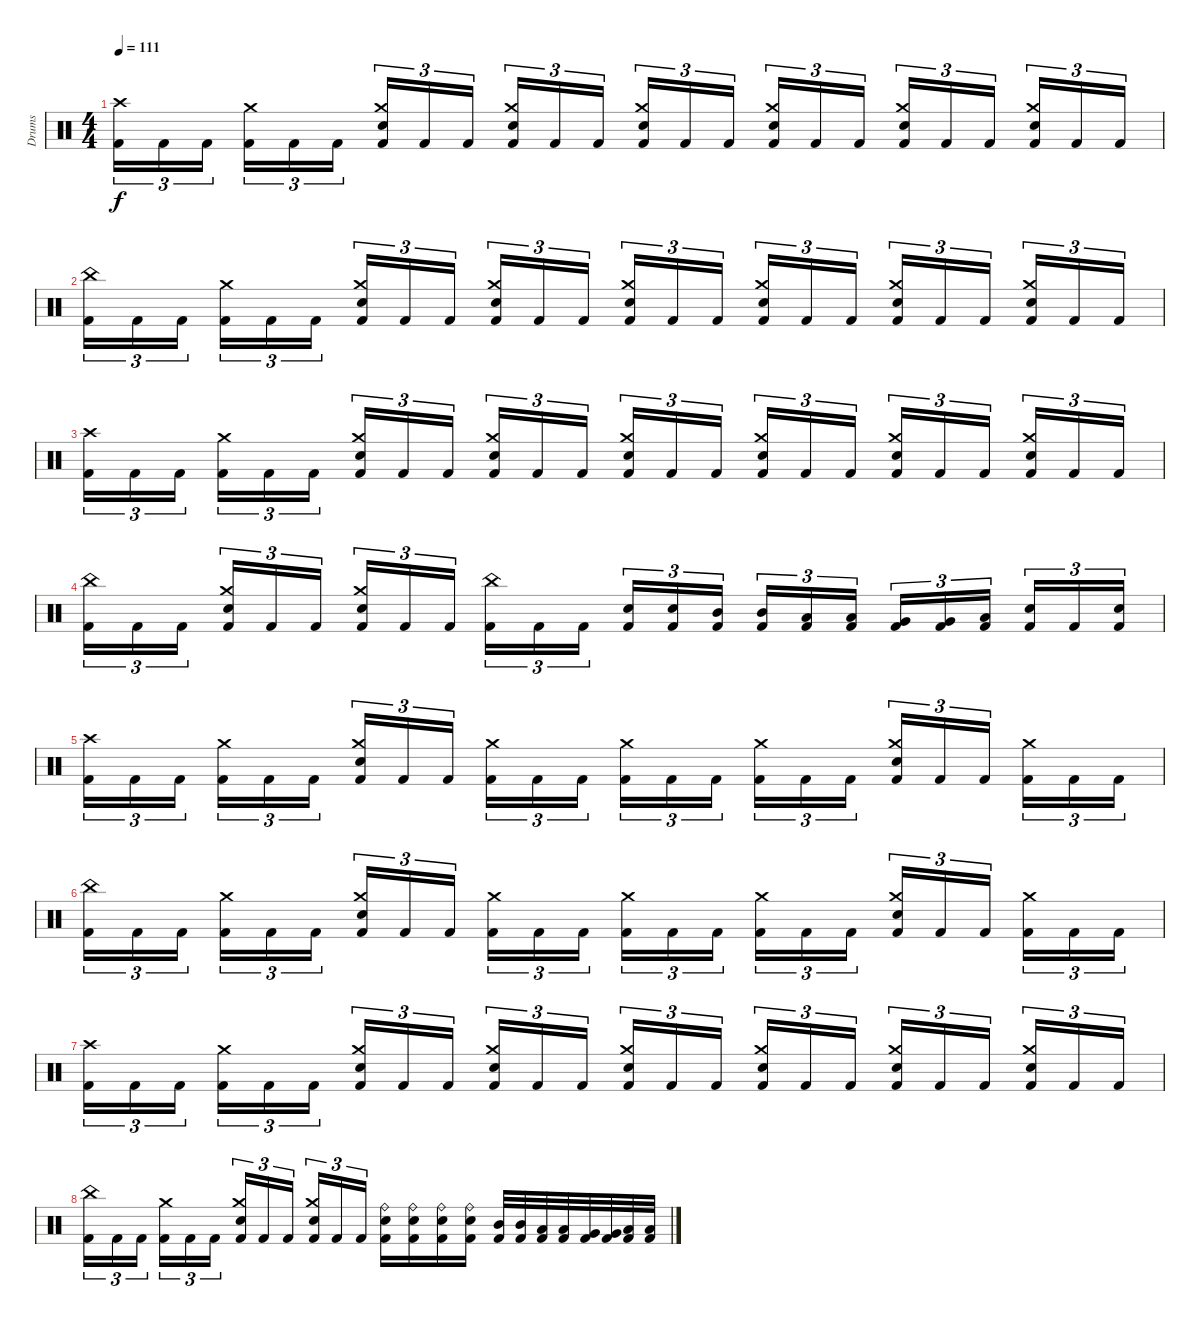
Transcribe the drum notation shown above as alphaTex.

\track ("Drums" "Drums") {instrument percussion}
\staff
\articulation defaults
\ts (4 4)
\tempo 111
\clef neutral
\ks c
("Crash high (hit)" "Kick (hit) 2").16{tu (3 2) dy f} "Kick (hit) 2".16{tu (3 2)} "Kick (hit) 2".16{tu (3 2) beam splitsecondary} ("Crash medium (hit)" "Kick (hit) 2").16{tu (3 2)} "Kick (hit) 2".16{tu (3 2)} "Kick (hit) 2".16{tu (3 2)} ("Crash medium (hit)" "Electric Snare (hit)" "Kick (hit) 2").16{tu (3 2)} "Kick (hit) 2".16{tu (3 2)} "Kick (hit) 2".16{tu (3 2) beam splitsecondary} ("Crash medium (hit)" "Electric Snare (hit)" "Kick (hit) 2").16{tu (3 2)} "Kick (hit) 2".16{tu (3 2)} "Kick (hit) 2".16{tu (3 2)} ("Crash medium (hit)" "Electric Snare (hit)" "Kick (hit) 2").16{tu (3 2)} "Kick (hit) 2".16{tu (3 2)} "Kick (hit) 2".16{tu (3 2) beam splitsecondary} ("Crash medium (hit)" "Electric Snare (hit)" "Kick (hit) 2").16{tu (3 2)} "Kick (hit) 2".16{tu (3 2)} "Kick (hit) 2".16{tu (3 2)} ("Crash medium (hit)" "Electric Snare (hit)" "Kick (hit) 2").16{tu (3 2)} "Kick (hit) 2".16{tu (3 2)} "Kick (hit) 2".16{tu (3 2) beam splitsecondary} ("Crash medium (hit)" "Electric Snare (hit)" "Kick (hit) 2").16{tu (3 2)} "Kick (hit) 2".16{tu (3 2)} "Kick (hit) 2".16{tu (3 2)} |
("China (hit)" "Kick (hit) 2").16{tu (3 2)} "Kick (hit) 2".16{tu (3 2)} "Kick (hit) 2".16{tu (3 2) beam splitsecondary} ("Crash medium (hit)" "Kick (hit) 2").16{tu (3 2)} "Kick (hit) 2".16{tu (3 2)} "Kick (hit) 2".16{tu (3 2)} ("Crash medium (hit)" "Electric Snare (hit)" "Kick (hit) 2").16{tu (3 2)} "Kick (hit) 2".16{tu (3 2)} "Kick (hit) 2".16{tu (3 2) beam splitsecondary} ("Crash medium (hit)" "Electric Snare (hit)" "Kick (hit) 2").16{tu (3 2)} "Kick (hit) 2".16{tu (3 2)} "Kick (hit) 2".16{tu (3 2)} ("Crash medium (hit)" "Electric Snare (hit)" "Kick (hit) 2").16{tu (3 2)} "Kick (hit) 2".16{tu (3 2)} "Kick (hit) 2".16{tu (3 2) beam splitsecondary} ("Crash medium (hit)" "Electric Snare (hit)" "Kick (hit) 2").16{tu (3 2)} "Kick (hit) 2".16{tu (3 2)} "Kick (hit) 2".16{tu (3 2)} ("Crash medium (hit)" "Electric Snare (hit)" "Kick (hit) 2").16{tu (3 2)} "Kick (hit) 2".16{tu (3 2)} "Kick (hit) 2".16{tu (3 2) beam splitsecondary} ("Crash medium (hit)" "Electric Snare (hit)" "Kick (hit) 2").16{tu (3 2)} "Kick (hit) 2".16{tu (3 2)} "Kick (hit) 2".16{tu (3 2)} |
("Crash high (hit)" "Kick (hit) 2").16{tu (3 2)} "Kick (hit) 2".16{tu (3 2)} "Kick (hit) 2".16{tu (3 2) beam splitsecondary} ("Crash medium (hit)" "Kick (hit) 2").16{tu (3 2)} "Kick (hit) 2".16{tu (3 2)} "Kick (hit) 2".16{tu (3 2)} ("Crash medium (hit)" "Electric Snare (hit)" "Kick (hit) 2").16{tu (3 2)} "Kick (hit) 2".16{tu (3 2)} "Kick (hit) 2".16{tu (3 2) beam splitsecondary} ("Crash medium (hit)" "Electric Snare (hit)" "Kick (hit) 2").16{tu (3 2)} "Kick (hit) 2".16{tu (3 2)} "Kick (hit) 2".16{tu (3 2)} ("Crash medium (hit)" "Electric Snare (hit)" "Kick (hit) 2").16{tu (3 2)} "Kick (hit) 2".16{tu (3 2)} "Kick (hit) 2".16{tu (3 2) beam splitsecondary} ("Crash medium (hit)" "Electric Snare (hit)" "Kick (hit) 2").16{tu (3 2)} "Kick (hit) 2".16{tu (3 2)} "Kick (hit) 2".16{tu (3 2)} ("Crash medium (hit)" "Electric Snare (hit)" "Kick (hit) 2").16{tu (3 2)} "Kick (hit) 2".16{tu (3 2)} "Kick (hit) 2".16{tu (3 2) beam splitsecondary} ("Crash medium (hit)" "Electric Snare (hit)" "Kick (hit) 2").16{tu (3 2)} "Kick (hit) 2".16{tu (3 2)} "Kick (hit) 2".16{tu (3 2)} |
("China (hit)" "Kick (hit) 2").16{tu (3 2)} "Kick (hit) 2".16{tu (3 2)} "Kick (hit) 2".16{tu (3 2) beam splitsecondary} ("Crash medium (hit)" "Electric Snare (hit)" "Kick (hit) 2").16{tu (3 2)} "Kick (hit) 2".16{tu (3 2)} "Kick (hit) 2".16{tu (3 2)} ("Crash medium (hit)" "Electric Snare (hit)" "Kick (hit) 2").16{tu (3 2)} "Kick (hit) 2".16{tu (3 2)} "Kick (hit) 2".16{tu (3 2) beam splitsecondary} ("China (hit)" "Kick (hit) 2").16{tu (3 2)} "Kick (hit) 2".16{tu (3 2)} "Kick (hit) 2".16{tu (3 2)} ("Electric Snare (hit)" "Kick (hit) 2").16{tu (3 2)} ("Electric Snare (hit)" "Kick (hit) 2").16{tu (3 2)} ("Mid Tom (hit)" "Kick (hit) 2").16{tu (3 2) beam splitsecondary} ("Mid Tom (hit)" "Kick (hit) 2").16{tu (3 2)} ("Low Tom (hit)" "Kick (hit) 2").16{tu (3 2)} ("Low Tom (hit)" "Kick (hit) 2").16{tu (3 2)} ("Very Low Tom (hit)" "Kick (hit) 2").16{tu (3 2)} ("Very Low Tom (hit)" "Kick (hit) 2").16{tu (3 2)} ("Low Floor Tom (hit)" "Kick (hit) 2").16{tu (3 2) beam splitsecondary} ("Electric Snare (hit)" "Kick (hit) 2").16{tu (3 2)} "Kick (hit) 2".16{tu (3 2)} ("Electric Snare (hit)" "Kick (hit) 2").16{tu (3 2)} |
("Crash high (hit)" "Kick (hit) 2").16{tu (3 2)} "Kick (hit) 2".16{tu (3 2)} "Kick (hit) 2".16{tu (3 2) beam splitsecondary} ("Crash medium (hit)" "Kick (hit) 2").16{tu (3 2)} "Kick (hit) 2".16{tu (3 2)} "Kick (hit) 2".16{tu (3 2)} ("Crash medium (hit)" "Electric Snare (hit)" "Kick (hit) 2").16{tu (3 2)} "Kick (hit) 2".16{tu (3 2)} "Kick (hit) 2".16{tu (3 2) beam splitsecondary} ("Crash medium (hit)" "Kick (hit) 2").16{tu (3 2)} "Kick (hit) 2".16{tu (3 2)} "Kick (hit) 2".16{tu (3 2)} ("Crash medium (hit)" "Kick (hit) 2").16{tu (3 2)} "Kick (hit) 2".16{tu (3 2)} "Kick (hit) 2".16{tu (3 2) beam splitsecondary} ("Crash medium (hit)" "Kick (hit) 2").16{tu (3 2)} "Kick (hit) 2".16{tu (3 2)} "Kick (hit) 2".16{tu (3 2)} ("Crash medium (hit)" "Electric Snare (hit)" "Kick (hit) 2").16{tu (3 2)} "Kick (hit) 2".16{tu (3 2)} "Kick (hit) 2".16{tu (3 2) beam splitsecondary} ("Crash medium (hit)" "Kick (hit) 2").16{tu (3 2)} "Kick (hit) 2".16{tu (3 2)} "Kick (hit) 2".16{tu (3 2)} |
("China (hit)" "Kick (hit) 2").16{tu (3 2)} "Kick (hit) 2".16{tu (3 2)} "Kick (hit) 2".16{tu (3 2) beam splitsecondary} ("Crash medium (hit)" "Kick (hit) 2").16{tu (3 2)} "Kick (hit) 2".16{tu (3 2)} "Kick (hit) 2".16{tu (3 2)} ("Crash medium (hit)" "Electric Snare (hit)" "Kick (hit) 2").16{tu (3 2)} "Kick (hit) 2".16{tu (3 2)} "Kick (hit) 2".16{tu (3 2) beam splitsecondary} ("Crash medium (hit)" "Kick (hit) 2").16{tu (3 2)} "Kick (hit) 2".16{tu (3 2)} "Kick (hit) 2".16{tu (3 2)} ("Crash medium (hit)" "Kick (hit) 2").16{tu (3 2)} "Kick (hit) 2".16{tu (3 2)} "Kick (hit) 2".16{tu (3 2) beam splitsecondary} ("Crash medium (hit)" "Kick (hit) 2").16{tu (3 2)} "Kick (hit) 2".16{tu (3 2)} "Kick (hit) 2".16{tu (3 2)} ("Crash medium (hit)" "Electric Snare (hit)" "Kick (hit) 2").16{tu (3 2)} "Kick (hit) 2".16{tu (3 2)} "Kick (hit) 2".16{tu (3 2) beam splitsecondary} ("Crash medium (hit)" "Kick (hit) 2").16{tu (3 2)} "Kick (hit) 2".16{tu (3 2)} "Kick (hit) 2".16{tu (3 2)} |
("Crash high (hit)" "Kick (hit) 2").16{tu (3 2)} "Kick (hit) 2".16{tu (3 2)} "Kick (hit) 2".16{tu (3 2) beam splitsecondary} ("Crash medium (hit)" "Kick (hit) 2").16{tu (3 2)} "Kick (hit) 2".16{tu (3 2)} "Kick (hit) 2".16{tu (3 2)} ("Crash medium (hit)" "Electric Snare (hit)" "Kick (hit) 2").16{tu (3 2)} "Kick (hit) 2".16{tu (3 2)} "Kick (hit) 2".16{tu (3 2) beam splitsecondary} ("Crash medium (hit)" "Electric Snare (hit)" "Kick (hit) 2").16{tu (3 2)} "Kick (hit) 2".16{tu (3 2)} "Kick (hit) 2".16{tu (3 2)} ("Crash medium (hit)" "Electric Snare (hit)" "Kick (hit) 2").16{tu (3 2)} "Kick (hit) 2".16{tu (3 2)} "Kick (hit) 2".16{tu (3 2) beam splitsecondary} ("Crash medium (hit)" "Electric Snare (hit)" "Kick (hit) 2").16{tu (3 2)} "Kick (hit) 2".16{tu (3 2)} "Kick (hit) 2".16{tu (3 2)} ("Crash medium (hit)" "Electric Snare (hit)" "Kick (hit) 2").16{tu (3 2)} "Kick (hit) 2".16{tu (3 2)} "Kick (hit) 2".16{tu (3 2) beam splitsecondary} ("Crash medium (hit)" "Electric Snare (hit)" "Kick (hit) 2").16{tu (3 2)} "Kick (hit) 2".16{tu (3 2)} "Kick (hit) 2".16{tu (3 2)} |
("China (hit)" "Kick (hit) 2").16{tu (3 2)} "Kick (hit) 2".16{tu (3 2)} "Kick (hit) 2".16{tu (3 2) beam splitsecondary} ("Crash medium (hit)" "Kick (hit) 2").16{tu (3 2)} "Kick (hit) 2".16{tu (3 2)} "Kick (hit) 2".16{tu (3 2)} ("Crash medium (hit)" "Electric Snare (hit)" "Kick (hit) 2").16{tu (3 2)} "Kick (hit) 2".16{tu (3 2)} "Kick (hit) 2".16{tu (3 2) beam splitsecondary} ("Crash medium (hit)" "Electric Snare (hit)" "Kick (hit) 2").16{tu (3 2)} "Kick (hit) 2".16{tu (3 2)} "Kick (hit) 2".16{tu (3 2)} ("Ride (bell)" "Electric Snare (hit)" "Kick (hit) 2").16 ("Ride (bell)" "Electric Snare (hit)" "Kick (hit) 2").16 ("Ride (bell)" "Electric Snare (hit)" "Kick (hit) 2").16 ("Ride (bell)" "Electric Snare (hit)" "Kick (hit) 2").16 ("Mid Tom (hit)" "Kick (hit) 2").32 ("Mid Tom (hit)" "Kick (hit) 2").32 ("Low Tom (hit)" "Kick (hit) 2").32 ("Low Tom (hit)" "Kick (hit) 2").32 ("Very Low Tom (hit)" "Kick (hit) 2").32 ("Very Low Tom (hit)" "Kick (hit) 2").32 ("Low Floor Tom (hit)" "Kick (hit) 2").32 ("Low Floor Tom (hit)" "Kick (hit) 2").32
